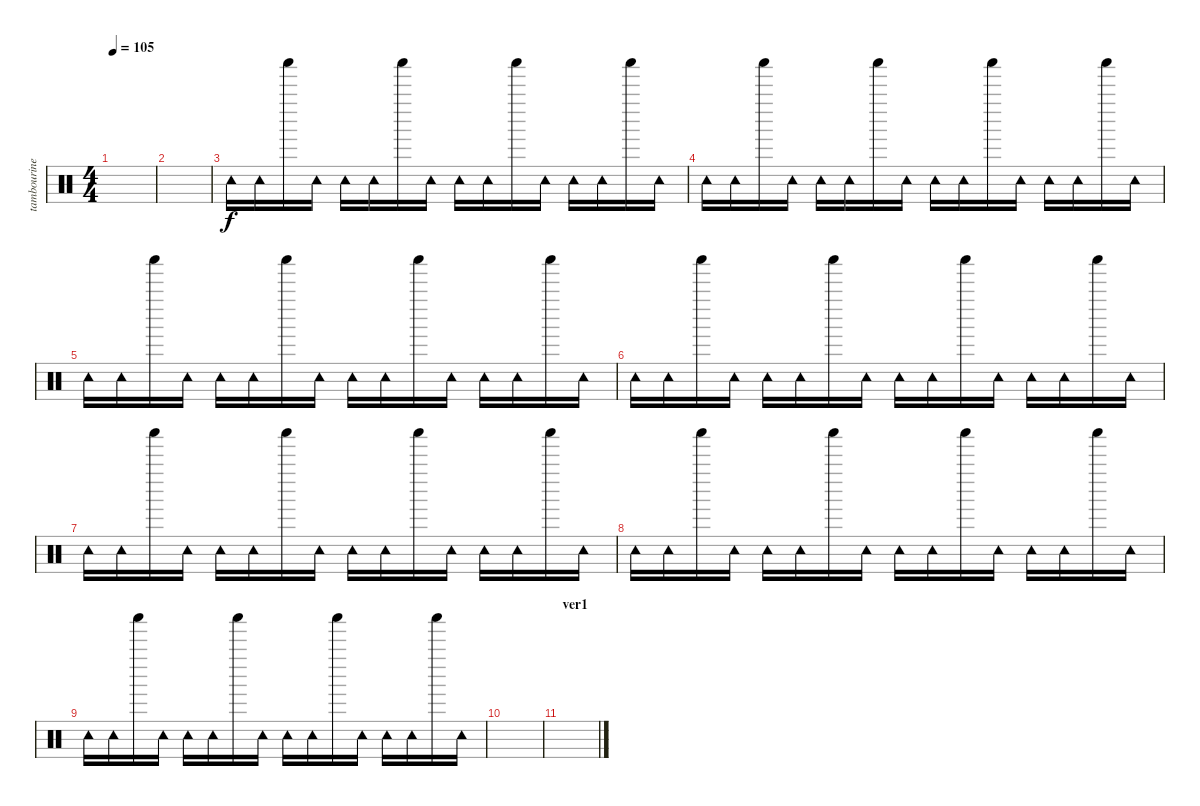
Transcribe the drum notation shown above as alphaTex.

\track ("tambourine" "tambourine") {instrument percussion}
\staff {score}
\articulation defaults
\ts (4 4)
\tempo 105
\clef neutral
\ks c
|
|
"Tambourine (hit)".16 "Tambourine (hit)".16 "Shaker (hit)".16 "Tambourine (hit)".16 "Tambourine (hit)".16 "Tambourine (hit)".16 "Shaker (hit)".16 "Tambourine (hit)".16 "Tambourine (hit)".16 "Tambourine (hit)".16 "Shaker (hit)".16 "Tambourine (hit)".16 "Tambourine (hit)".16 "Tambourine (hit)".16 "Shaker (hit)".16 "Tambourine (hit)".16 |
"Tambourine (hit)".16 "Tambourine (hit)".16 "Shaker (hit)".16 "Tambourine (hit)".16 "Tambourine (hit)".16 "Tambourine (hit)".16 "Shaker (hit)".16 "Tambourine (hit)".16 "Tambourine (hit)".16 "Tambourine (hit)".16 "Shaker (hit)".16 "Tambourine (hit)".16 "Tambourine (hit)".16 "Tambourine (hit)".16 "Shaker (hit)".16 "Tambourine (hit)".16 |
"Tambourine (hit)".16 "Tambourine (hit)".16 "Shaker (hit)".16 "Tambourine (hit)".16 "Tambourine (hit)".16 "Tambourine (hit)".16 "Shaker (hit)".16 "Tambourine (hit)".16 "Tambourine (hit)".16 "Tambourine (hit)".16 "Shaker (hit)".16 "Tambourine (hit)".16 "Tambourine (hit)".16 "Tambourine (hit)".16 "Shaker (hit)".16 "Tambourine (hit)".16 |
"Tambourine (hit)".16 "Tambourine (hit)".16 "Shaker (hit)".16 "Tambourine (hit)".16 "Tambourine (hit)".16 "Tambourine (hit)".16 "Shaker (hit)".16 "Tambourine (hit)".16 "Tambourine (hit)".16 "Tambourine (hit)".16 "Shaker (hit)".16 "Tambourine (hit)".16 "Tambourine (hit)".16 "Tambourine (hit)".16 "Shaker (hit)".16 "Tambourine (hit)".16 |
"Tambourine (hit)".16 "Tambourine (hit)".16 "Shaker (hit)".16 "Tambourine (hit)".16 "Tambourine (hit)".16 "Tambourine (hit)".16 "Shaker (hit)".16 "Tambourine (hit)".16 "Tambourine (hit)".16 "Tambourine (hit)".16 "Shaker (hit)".16 "Tambourine (hit)".16 "Tambourine (hit)".16 "Tambourine (hit)".16 "Shaker (hit)".16 "Tambourine (hit)".16 |
"Tambourine (hit)".16 "Tambourine (hit)".16 "Shaker (hit)".16 "Tambourine (hit)".16 "Tambourine (hit)".16 "Tambourine (hit)".16 "Shaker (hit)".16 "Tambourine (hit)".16 "Tambourine (hit)".16 "Tambourine (hit)".16 "Shaker (hit)".16 "Tambourine (hit)".16 "Tambourine (hit)".16 "Tambourine (hit)".16 "Shaker (hit)".16 "Tambourine (hit)".16 |
"Tambourine (hit)".16 "Tambourine (hit)".16 "Shaker (hit)".16 "Tambourine (hit)".16 "Tambourine (hit)".16 "Tambourine (hit)".16 "Shaker (hit)".16 "Tambourine (hit)".16 "Tambourine (hit)".16 "Tambourine (hit)".16 "Shaker (hit)".16 "Tambourine (hit)".16 "Tambourine (hit)".16 "Tambourine (hit)".16 "Shaker (hit)".16 "Tambourine (hit)".16 |
|
\section ("" "ver1")
